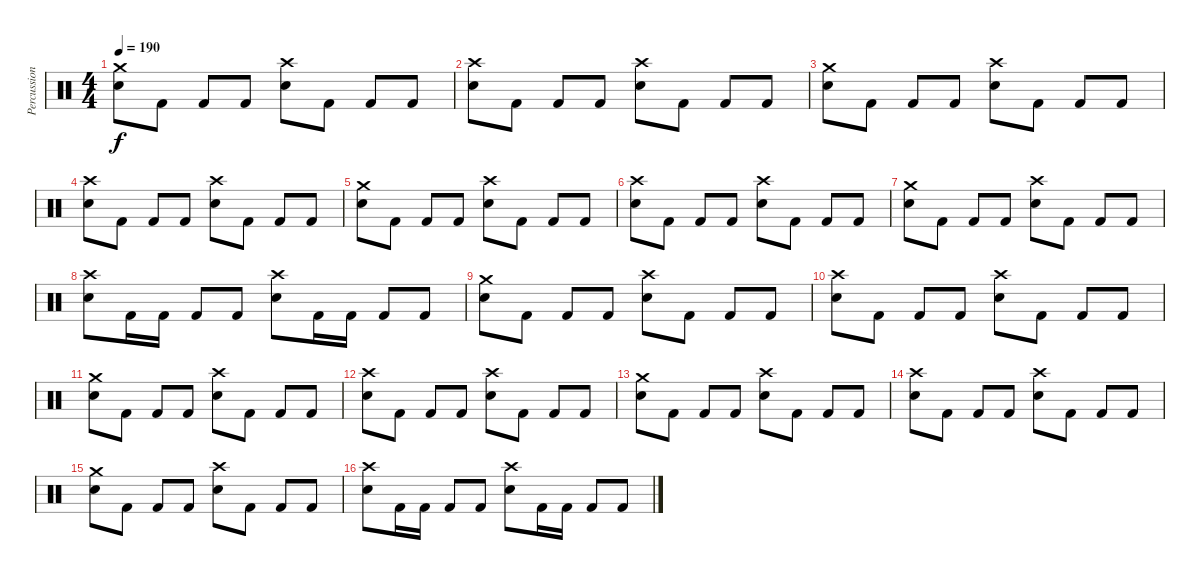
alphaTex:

\track ("Percussions" "Percussion") {instrument percussion}
\staff {score}
\articulation defaults
\ts (4 4)
\tempo 190
\clef neutral
\ks c
("Crash medium (hit)" "Electric Snare (hit)").8{dy f} "Kick (hit) 2".8 "Kick (hit) 2".8 "Kick (hit) 2".8 ("Crash high (hit)" "Electric Snare (hit)").8 "Kick (hit) 2".8 "Kick (hit) 2".8 "Kick (hit) 2".8 |
("Crash high (hit)" "Electric Snare (hit)").8 "Kick (hit) 2".8 "Kick (hit) 2".8 "Kick (hit) 2".8 ("Crash high (hit)" "Electric Snare (hit)").8 "Kick (hit) 2".8 "Kick (hit) 2".8 "Kick (hit) 2".8 |
("Crash medium (hit)" "Electric Snare (hit)").8 "Kick (hit) 2".8 "Kick (hit) 2".8 "Kick (hit) 2".8 ("Crash high (hit)" "Electric Snare (hit)").8 "Kick (hit) 2".8 "Kick (hit) 2".8 "Kick (hit) 2".8 |
("Crash high (hit)" "Electric Snare (hit)").8 "Kick (hit) 2".8 "Kick (hit) 2".8 "Kick (hit) 2".8 ("Crash high (hit)" "Electric Snare (hit)").8 "Kick (hit) 2".8 "Kick (hit) 2".8 "Kick (hit) 2".8 |
("Crash medium (hit)" "Electric Snare (hit)").8 "Kick (hit) 2".8 "Kick (hit) 2".8 "Kick (hit) 2".8 ("Crash high (hit)" "Electric Snare (hit)").8 "Kick (hit) 2".8 "Kick (hit) 2".8 "Kick (hit) 2".8 |
("Crash high (hit)" "Electric Snare (hit)").8 "Kick (hit) 2".8 "Kick (hit) 2".8 "Kick (hit) 2".8 ("Crash high (hit)" "Electric Snare (hit)").8 "Kick (hit) 2".8 "Kick (hit) 2".8 "Kick (hit) 2".8 |
("Crash medium (hit)" "Electric Snare (hit)").8 "Kick (hit) 2".8 "Kick (hit) 2".8 "Kick (hit) 2".8 ("Crash high (hit)" "Electric Snare (hit)").8 "Kick (hit) 2".8 "Kick (hit) 2".8 "Kick (hit) 2".8 |
("Crash high (hit)" "Electric Snare (hit)").8 "Kick (hit) 2".16 "Kick (hit) 2".16 "Kick (hit) 2".8 "Kick (hit) 2".8 ("Crash high (hit)" "Electric Snare (hit)").8 "Kick (hit) 2".16 "Kick (hit) 2".16 "Kick (hit) 2".8 "Kick (hit) 2".8 |
("Crash medium (hit)" "Electric Snare (hit)").8 "Kick (hit) 2".8 "Kick (hit) 2".8 "Kick (hit) 2".8 ("Crash high (hit)" "Electric Snare (hit)").8 "Kick (hit) 2".8 "Kick (hit) 2".8 "Kick (hit) 2".8 |
("Crash high (hit)" "Electric Snare (hit)").8 "Kick (hit) 2".8 "Kick (hit) 2".8 "Kick (hit) 2".8 ("Crash high (hit)" "Electric Snare (hit)").8 "Kick (hit) 2".8 "Kick (hit) 2".8 "Kick (hit) 2".8 |
("Crash medium (hit)" "Electric Snare (hit)").8 "Kick (hit) 2".8 "Kick (hit) 2".8 "Kick (hit) 2".8 ("Crash high (hit)" "Electric Snare (hit)").8 "Kick (hit) 2".8 "Kick (hit) 2".8 "Kick (hit) 2".8 |
("Crash high (hit)" "Electric Snare (hit)").8 "Kick (hit) 2".8 "Kick (hit) 2".8 "Kick (hit) 2".8 ("Crash high (hit)" "Electric Snare (hit)").8 "Kick (hit) 2".8 "Kick (hit) 2".8 "Kick (hit) 2".8 |
("Crash medium (hit)" "Electric Snare (hit)").8 "Kick (hit) 2".8 "Kick (hit) 2".8 "Kick (hit) 2".8 ("Crash high (hit)" "Electric Snare (hit)").8 "Kick (hit) 2".8 "Kick (hit) 2".8 "Kick (hit) 2".8 |
("Crash high (hit)" "Electric Snare (hit)").8 "Kick (hit) 2".8 "Kick (hit) 2".8 "Kick (hit) 2".8 ("Crash high (hit)" "Electric Snare (hit)").8 "Kick (hit) 2".8 "Kick (hit) 2".8 "Kick (hit) 2".8 |
("Crash medium (hit)" "Electric Snare (hit)").8 "Kick (hit) 2".8 "Kick (hit) 2".8 "Kick (hit) 2".8 ("Crash high (hit)" "Electric Snare (hit)").8 "Kick (hit) 2".8 "Kick (hit) 2".8 "Kick (hit) 2".8 |
("Crash high (hit)" "Electric Snare (hit)").8 "Kick (hit) 2".16 "Kick (hit) 2".16 "Kick (hit) 2".8 "Kick (hit) 2".8 ("Crash high (hit)" "Electric Snare (hit)").8 "Kick (hit) 2".16 "Kick (hit) 2".16 "Kick (hit) 2".8 "Kick (hit) 2".8
